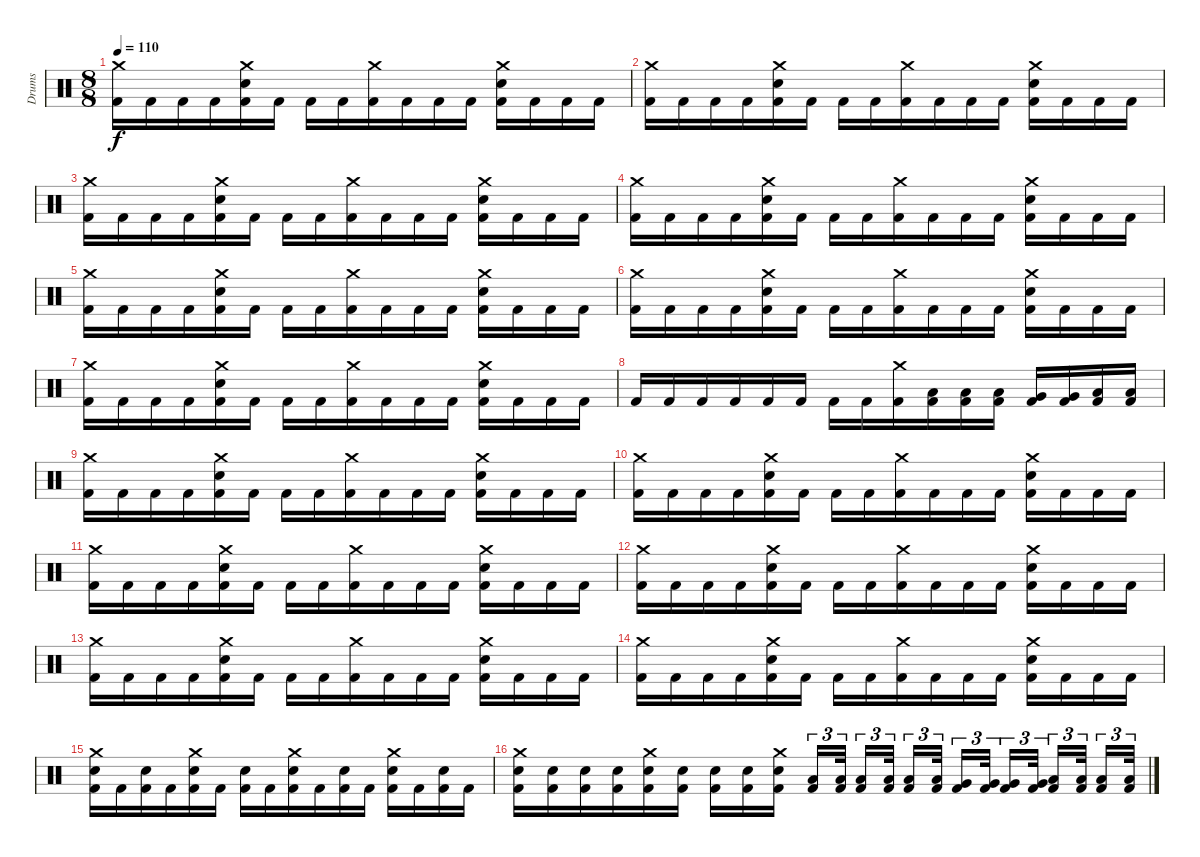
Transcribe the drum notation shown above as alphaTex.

\track ("Drums" "Drums") {instrument percussion}
\staff {score}
\articulation defaults
\ts (8 8)
\tempo 110
\clef neutral
\ks c
("Crash medium (hit)" "Kick (hit) 2").16{dy f} "Kick (hit) 2".16 "Kick (hit) 2".16 "Kick (hit) 2".16 ("Crash medium (hit)" "Electric Snare (hit)" "Kick (hit) 2").16 "Kick (hit) 2".16 "Kick (hit) 2".16 "Kick (hit) 2".16 ("Crash medium (hit)" "Kick (hit) 2").16 "Kick (hit) 2".16 "Kick (hit) 2".16 "Kick (hit) 2".16 ("Crash medium (hit)" "Electric Snare (hit)" "Kick (hit) 2").16 "Kick (hit) 2".16 "Kick (hit) 2".16 "Kick (hit) 2".16 |
("Crash medium (hit)" "Kick (hit) 2").16 "Kick (hit) 2".16 "Kick (hit) 2".16 "Kick (hit) 2".16 ("Crash medium (hit)" "Electric Snare (hit)" "Kick (hit) 2").16 "Kick (hit) 2".16 "Kick (hit) 2".16 "Kick (hit) 2".16 ("Crash medium (hit)" "Kick (hit) 2").16 "Kick (hit) 2".16 "Kick (hit) 2".16 "Kick (hit) 2".16 ("Crash medium (hit)" "Electric Snare (hit)" "Kick (hit) 2").16 "Kick (hit) 2".16 "Kick (hit) 2".16 "Kick (hit) 2".16 |
("Crash medium (hit)" "Kick (hit) 2").16 "Kick (hit) 2".16 "Kick (hit) 2".16 "Kick (hit) 2".16 ("Crash medium (hit)" "Electric Snare (hit)" "Kick (hit) 2").16 "Kick (hit) 2".16 "Kick (hit) 2".16 "Kick (hit) 2".16 ("Crash medium (hit)" "Kick (hit) 2").16 "Kick (hit) 2".16 "Kick (hit) 2".16 "Kick (hit) 2".16 ("Crash medium (hit)" "Electric Snare (hit)" "Kick (hit) 2").16 "Kick (hit) 2".16 "Kick (hit) 2".16 "Kick (hit) 2".16 |
("Crash medium (hit)" "Kick (hit) 2").16 "Kick (hit) 2".16 "Kick (hit) 2".16 "Kick (hit) 2".16 ("Crash medium (hit)" "Electric Snare (hit)" "Kick (hit) 2").16 "Kick (hit) 2".16 "Kick (hit) 2".16 "Kick (hit) 2".16 ("Crash medium (hit)" "Kick (hit) 2").16 "Kick (hit) 2".16 "Kick (hit) 2".16 "Kick (hit) 2".16 ("Crash medium (hit)" "Electric Snare (hit)" "Kick (hit) 2").16 "Kick (hit) 2".16 "Kick (hit) 2".16 "Kick (hit) 2".16 |
("Crash medium (hit)" "Kick (hit) 2").16 "Kick (hit) 2".16 "Kick (hit) 2".16 "Kick (hit) 2".16 ("Crash medium (hit)" "Electric Snare (hit)" "Kick (hit) 2").16 "Kick (hit) 2".16 "Kick (hit) 2".16 "Kick (hit) 2".16 ("Crash medium (hit)" "Kick (hit) 2").16 "Kick (hit) 2".16 "Kick (hit) 2".16 "Kick (hit) 2".16 ("Crash medium (hit)" "Electric Snare (hit)" "Kick (hit) 2").16 "Kick (hit) 2".16 "Kick (hit) 2".16 "Kick (hit) 2".16 |
("Crash medium (hit)" "Kick (hit) 2").16 "Kick (hit) 2".16 "Kick (hit) 2".16 "Kick (hit) 2".16 ("Crash medium (hit)" "Electric Snare (hit)" "Kick (hit) 2").16 "Kick (hit) 2".16 "Kick (hit) 2".16 "Kick (hit) 2".16 ("Crash medium (hit)" "Kick (hit) 2").16 "Kick (hit) 2".16 "Kick (hit) 2".16 "Kick (hit) 2".16 ("Crash medium (hit)" "Electric Snare (hit)" "Kick (hit) 2").16 "Kick (hit) 2".16 "Kick (hit) 2".16 "Kick (hit) 2".16 |
("Crash medium (hit)" "Kick (hit) 2").16 "Kick (hit) 2".16 "Kick (hit) 2".16 "Kick (hit) 2".16 ("Crash medium (hit)" "Electric Snare (hit)" "Kick (hit) 2").16 "Kick (hit) 2".16 "Kick (hit) 2".16 "Kick (hit) 2".16 ("Crash medium (hit)" "Kick (hit) 2").16 "Kick (hit) 2".16 "Kick (hit) 2".16 "Kick (hit) 2".16 ("Crash medium (hit)" "Electric Snare (hit)" "Kick (hit) 2").16 "Kick (hit) 2".16 "Kick (hit) 2".16 "Kick (hit) 2".16 |
"Kick (hit) 2".16 "Kick (hit) 2".16 "Kick (hit) 2".16 "Kick (hit) 2".16 "Kick (hit) 2".16 "Kick (hit) 2".16 "Kick (hit) 2".16 "Kick (hit) 2".16 ("Crash medium (hit)" "Kick (hit) 2").16 ("Low Tom (hit)" "Kick (hit) 2").16 ("Low Tom (hit)" "Kick (hit) 2").16 ("Low Tom (hit)" "Kick (hit) 2").16 ("Very Low Tom (hit)" "Kick (hit) 2").16 ("Very Low Tom (hit)" "Kick (hit) 2").16 ("Low Floor Tom (hit)" "Kick (hit) 2").16 ("Low Floor Tom (hit)" "Kick (hit) 2").16 |
("Crash medium (hit)" "Kick (hit) 2").16 "Kick (hit) 2".16 "Kick (hit) 2".16 "Kick (hit) 2".16 ("Crash medium (hit)" "Electric Snare (hit)" "Kick (hit) 2").16 "Kick (hit) 2".16 "Kick (hit) 2".16 "Kick (hit) 2".16 ("Crash medium (hit)" "Kick (hit) 2").16 "Kick (hit) 2".16 "Kick (hit) 2".16 "Kick (hit) 2".16 ("Crash medium (hit)" "Electric Snare (hit)" "Kick (hit) 2").16 "Kick (hit) 2".16 "Kick (hit) 2".16 "Kick (hit) 2".16 |
("Crash medium (hit)" "Kick (hit) 2").16 "Kick (hit) 2".16 "Kick (hit) 2".16 "Kick (hit) 2".16 ("Crash medium (hit)" "Electric Snare (hit)" "Kick (hit) 2").16 "Kick (hit) 2".16 "Kick (hit) 2".16 "Kick (hit) 2".16 ("Crash medium (hit)" "Kick (hit) 2").16 "Kick (hit) 2".16 "Kick (hit) 2".16 "Kick (hit) 2".16 ("Crash medium (hit)" "Electric Snare (hit)" "Kick (hit) 2").16 "Kick (hit) 2".16 "Kick (hit) 2".16 "Kick (hit) 2".16 |
("Crash medium (hit)" "Kick (hit) 2").16 "Kick (hit) 2".16 "Kick (hit) 2".16 "Kick (hit) 2".16 ("Crash medium (hit)" "Electric Snare (hit)" "Kick (hit) 2").16 "Kick (hit) 2".16 "Kick (hit) 2".16 "Kick (hit) 2".16 ("Crash medium (hit)" "Kick (hit) 2").16 "Kick (hit) 2".16 "Kick (hit) 2".16 "Kick (hit) 2".16 ("Crash medium (hit)" "Electric Snare (hit)" "Kick (hit) 2").16 "Kick (hit) 2".16 "Kick (hit) 2".16 "Kick (hit) 2".16 |
("Crash medium (hit)" "Kick (hit) 2").16 "Kick (hit) 2".16 "Kick (hit) 2".16 "Kick (hit) 2".16 ("Crash medium (hit)" "Electric Snare (hit)" "Kick (hit) 2").16 "Kick (hit) 2".16 "Kick (hit) 2".16 "Kick (hit) 2".16 ("Crash medium (hit)" "Kick (hit) 2").16 "Kick (hit) 2".16 "Kick (hit) 2".16 "Kick (hit) 2".16 ("Crash medium (hit)" "Electric Snare (hit)" "Kick (hit) 2").16 "Kick (hit) 2".16 "Kick (hit) 2".16 "Kick (hit) 2".16 |
("Crash medium (hit)" "Kick (hit) 2").16 "Kick (hit) 2".16 "Kick (hit) 2".16 "Kick (hit) 2".16 ("Crash medium (hit)" "Electric Snare (hit)" "Kick (hit) 2").16 "Kick (hit) 2".16 "Kick (hit) 2".16 "Kick (hit) 2".16 ("Crash medium (hit)" "Kick (hit) 2").16 "Kick (hit) 2".16 "Kick (hit) 2".16 "Kick (hit) 2".16 ("Crash medium (hit)" "Electric Snare (hit)" "Kick (hit) 2").16 "Kick (hit) 2".16 "Kick (hit) 2".16 "Kick (hit) 2".16 |
("Crash medium (hit)" "Kick (hit) 2").16 "Kick (hit) 2".16 "Kick (hit) 2".16 "Kick (hit) 2".16 ("Crash medium (hit)" "Electric Snare (hit)" "Kick (hit) 2").16 "Kick (hit) 2".16 "Kick (hit) 2".16 "Kick (hit) 2".16 ("Crash medium (hit)" "Kick (hit) 2").16 "Kick (hit) 2".16 "Kick (hit) 2".16 "Kick (hit) 2".16 ("Crash medium (hit)" "Electric Snare (hit)" "Kick (hit) 2").16 "Kick (hit) 2".16 "Kick (hit) 2".16 "Kick (hit) 2".16 |
("Crash medium (hit)" "Electric Snare (hit)" "Kick (hit) 2").16 "Kick (hit) 2".16 ("Electric Snare (hit)" "Kick (hit) 2").16 "Kick (hit) 2".16 ("Crash medium (hit)" "Electric Snare (hit)" "Kick (hit) 2").16 "Kick (hit) 2".16 ("Electric Snare (hit)" "Kick (hit) 2").16 "Kick (hit) 2".16 ("Crash medium (hit)" "Electric Snare (hit)" "Kick (hit) 2").16 "Kick (hit) 2".16 ("Electric Snare (hit)" "Kick (hit) 2").16 "Kick (hit) 2".16 ("Crash medium (hit)" "Electric Snare (hit)" "Kick (hit) 2").16 "Kick (hit) 2".16 ("Electric Snare (hit)" "Kick (hit) 2").16 "Kick (hit) 2".16 |
("Crash medium (hit)" "Electric Snare (hit)" "Kick (hit) 2").16 ("Electric Snare (hit)" "Kick (hit) 2").16 ("Electric Snare (hit)" "Kick (hit) 2").16 ("Electric Snare (hit)" "Kick (hit) 2").16 ("Crash medium (hit)" "Electric Snare (hit)" "Kick (hit) 2").16 ("Electric Snare (hit)" "Kick (hit) 2").16 ("Electric Snare (hit)" "Kick (hit) 2").16 ("Electric Snare (hit)" "Kick (hit) 2").16 ("Crash medium (hit)" "Electric Snare (hit)" "Kick (hit) 2").16{beam splitsecondary} ("Low Tom (hit)" "Kick (hit) 2").16{tu (3 2)} ("Low Tom (hit)" "Kick (hit) 2").32{tu (3 2)} ("Low Tom (hit)" "Kick (hit) 2").16{tu (3 2)} ("Low Tom (hit)" "Kick (hit) 2").32{tu (3 2) beam splitsecondary} ("Low Tom (hit)" "Kick (hit) 2").16{tu (3 2)} ("Low Tom (hit)" "Kick (hit) 2").32{tu (3 2)} ("Very Low Tom (hit)" "Kick (hit) 2").16{tu (3 2)} ("Very Low Tom (hit)" "Kick (hit) 2").32{tu (3 2) beam splitsecondary} ("Very Low Tom (hit)" "Kick (hit) 2").16{tu (3 2)} ("Very Low Tom (hit)" "Kick (hit) 2").32{tu (3 2)} ("Low Floor Tom (hit)" "Kick (hit) 2").16{tu (3 2)} ("Low Floor Tom (hit)" "Kick (hit) 2").32{tu (3 2) beam splitsecondary} ("Low Floor Tom (hit)" "Kick (hit) 2").16{tu (3 2)} ("Low Floor Tom (hit)" "Kick (hit) 2").32{tu (3 2)}
